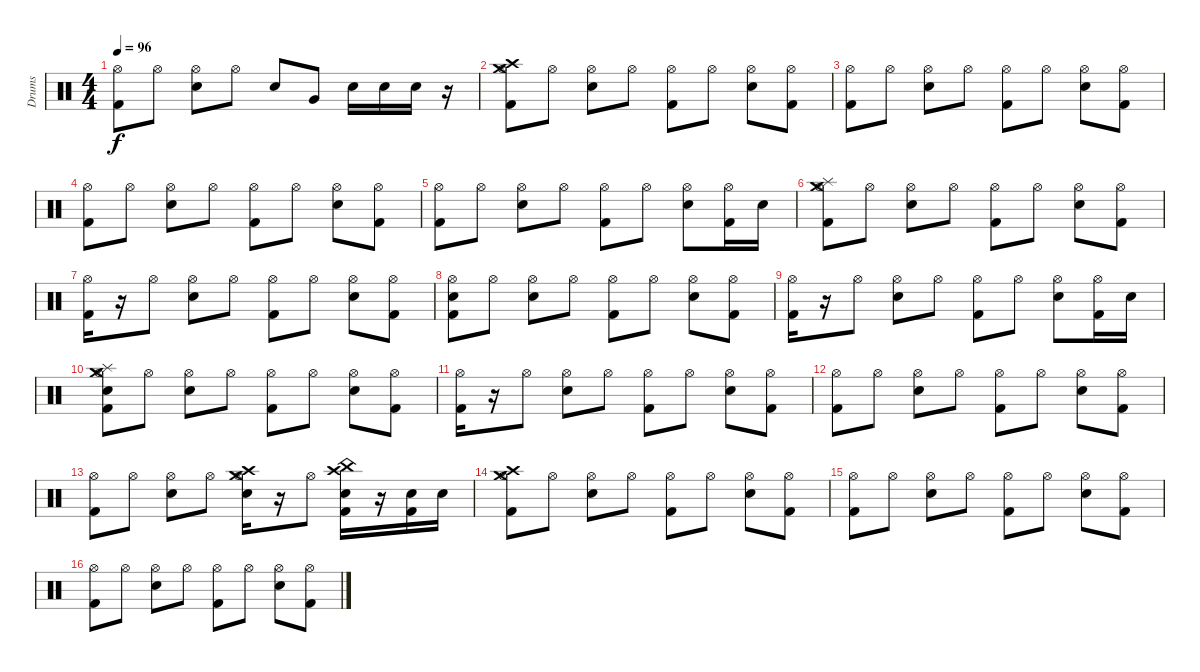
\track ("Drums" "Drums") {instrument percussion}
\staff {score}
\articulation defaults
\ts (4 4)
\tempo 96
\clef neutral
\ks c
("Hi-Hat (open)" "Kick (hit) 2").8{dy f} "Hi-Hat (open)".8 ("Hi-Hat (open)" "Snare (hit) 2").8 "Hi-Hat (open)".8 "Snare (hit) 2".8 "Very Low Tom (hit)".8 "Snare (hit) 2".16 "Snare (hit) 2".16 "Snare (hit) 2".16 r.16 |
("Hi-Hat (open)" "Kick (hit) 2" "Crash high (hit)" "Crash medium (hit)").8 "Hi-Hat (open)".8 ("Hi-Hat (open)" "Snare (hit) 2").8 "Hi-Hat (open)".8 ("Hi-Hat (open)" "Kick (hit) 2").8 "Hi-Hat (open)".8 ("Snare (hit) 2" "Hi-Hat (open)").8 ("Hi-Hat (open)" "Kick (hit) 2").8 |
("Hi-Hat (open)" "Kick (hit) 2").8 "Hi-Hat (open)".8 ("Snare (hit) 2" "Hi-Hat (open)").8 "Hi-Hat (open)".8 ("Hi-Hat (open)" "Kick (hit) 2").8 "Hi-Hat (open)".8 ("Hi-Hat (open)" "Snare (hit) 2").8 ("Hi-Hat (open)" "Kick (hit) 2").8 |
("Hi-Hat (open)" "Kick (hit) 2").8 "Hi-Hat (open)".8 ("Hi-Hat (open)" "Snare (hit) 2").8 "Hi-Hat (open)".8 ("Hi-Hat (open)" "Kick (hit) 2").8 "Hi-Hat (open)".8 ("Hi-Hat (open)" "Snare (hit) 2").8 ("Hi-Hat (open)" "Kick (hit) 2").8 |
("Hi-Hat (open)" "Kick (hit) 2").8 "Hi-Hat (open)".8 ("Hi-Hat (open)" "Snare (hit) 2").8 "Hi-Hat (open)".8 ("Hi-Hat (open)" "Kick (hit) 2").8 "Hi-Hat (open)".8 ("Hi-Hat (open)" "Snare (hit) 2").8 ("Hi-Hat (open)" "Kick (hit) 2").16 "Snare (hit) 2".16 |
("Splash (hit)" "Crash medium (hit)" "Hi-Hat (open)" "Kick (hit) 2").8 "Hi-Hat (open)".8 ("Hi-Hat (open)" "Snare (hit) 2").8 "Hi-Hat (open)".8 ("Hi-Hat (open)" "Kick (hit) 2").8 "Hi-Hat (open)".8 ("Hi-Hat (open)" "Snare (hit) 2").8 ("Hi-Hat (open)" "Kick (hit) 2").8 |
("Hi-Hat (open)" "Kick (hit) 2").16 r.16 "Hi-Hat (open)".8 ("Hi-Hat (open)" "Snare (hit) 2").8 "Hi-Hat (open)".8 ("Hi-Hat (open)" "Kick (hit) 2").8 "Hi-Hat (open)".8 ("Hi-Hat (open)" "Snare (hit) 2").8 ("Hi-Hat (open)" "Kick (hit) 2").8 |
("Snare (hit)" "Hi-Hat (open)" "Kick (hit) 2").8 "Hi-Hat (open)".8 ("Hi-Hat (open)" "Snare (hit) 2").8 "Hi-Hat (open)".8 ("Hi-Hat (open)" "Kick (hit) 2").8 "Hi-Hat (open)".8 ("Hi-Hat (open)" "Snare (hit) 2").8 ("Hi-Hat (open)" "Kick (hit) 2").8 |
("Hi-Hat (open)" "Kick (hit) 2").16 r.16 "Hi-Hat (open)".8 ("Hi-Hat (open)" "Snare (hit) 2").8 "Hi-Hat (open)".8 ("Kick (hit) 2" "Hi-Hat (open)").8 "Hi-Hat (open)".8 ("Snare (hit) 2" "Hi-Hat (open)").8 ("Kick (hit) 2" "Hi-Hat (open)").16 "Snare (hit) 2".16 |
("Snare (hit)" "Crash medium (hit)" "Splash (hit)" "Kick (hit) 2" "Hi-Hat (open)").8 "Hi-Hat (open)".8 ("Hi-Hat (open)" "Snare (hit) 2").8 "Hi-Hat (open)".8 ("Kick (hit) 2" "Hi-Hat (open)").8 "Hi-Hat (open)".8 ("Hi-Hat (open)" "Snare (hit) 2").8 ("Kick (hit) 2" "Hi-Hat (open)").8 |
("Hi-Hat (open)" "Kick (hit) 2").16 r.16 "Hi-Hat (open)".8 ("Hi-Hat (open)" "Snare (hit) 2").8 "Hi-Hat (open)".8 ("Hi-Hat (open)" "Kick (hit) 2").8 "Hi-Hat (open)".8 ("Hi-Hat (open)" "Snare (hit) 2").8 ("Hi-Hat (open)" "Kick (hit) 2").8 |
("Hi-Hat (open)" "Kick (hit) 2").8 "Hi-Hat (open)".8 ("Hi-Hat (open)" "Snare (hit) 2").8 "Hi-Hat (open)".8 ("Hi-Hat (open)" "Kick (hit) 2").8 "Hi-Hat (open)".8 ("Hi-Hat (open)" "Snare (hit) 2").8 ("Hi-Hat (open)" "Kick (hit) 2").8 |
("Hi-Hat (open)" "Kick (hit) 2").8 "Hi-Hat (open)".8 ("Hi-Hat (open)" "Snare (hit) 2").8 "Hi-Hat (open)".8 ("Crash medium (hit)" "Crash high (hit)" "Snare (hit) 2" "Hi-Hat (open)").16 r.16 "Hi-Hat (open)".8 ("China (hit)" "Crash high (hit)" "Kick (hit) 2" "Snare (hit) 2").16 r.16 ("Kick (hit) 2" "Snare (hit) 2").16 "Snare (hit) 2".16 |
("Crash high (hit)" "Crash medium (hit)" "Hi-Hat (open)" "Kick (hit) 2").8 "Hi-Hat (open)".8 ("Hi-Hat (open)" "Snare (hit) 2").8 "Hi-Hat (open)".8 ("Hi-Hat (open)" "Kick (hit) 2").8 "Hi-Hat (open)".8 ("Hi-Hat (open)" "Snare (hit) 2").8 ("Hi-Hat (open)" "Kick (hit) 2").8 |
("Hi-Hat (open)" "Kick (hit) 2").8 "Hi-Hat (open)".8 ("Hi-Hat (open)" "Snare (hit) 2").8 "Hi-Hat (open)".8 ("Hi-Hat (open)" "Kick (hit) 2").8 "Hi-Hat (open)".8 ("Hi-Hat (open)" "Snare (hit) 2").8 ("Hi-Hat (open)" "Kick (hit) 2").8 |
("Hi-Hat (open)" "Kick (hit) 2").8 "Hi-Hat (open)".8 ("Hi-Hat (open)" "Snare (hit) 2").8 "Hi-Hat (open)".8 ("Hi-Hat (open)" "Kick (hit) 2").8 "Hi-Hat (open)".8 ("Hi-Hat (open)" "Snare (hit) 2").8 ("Hi-Hat (open)" "Kick (hit) 2").8
